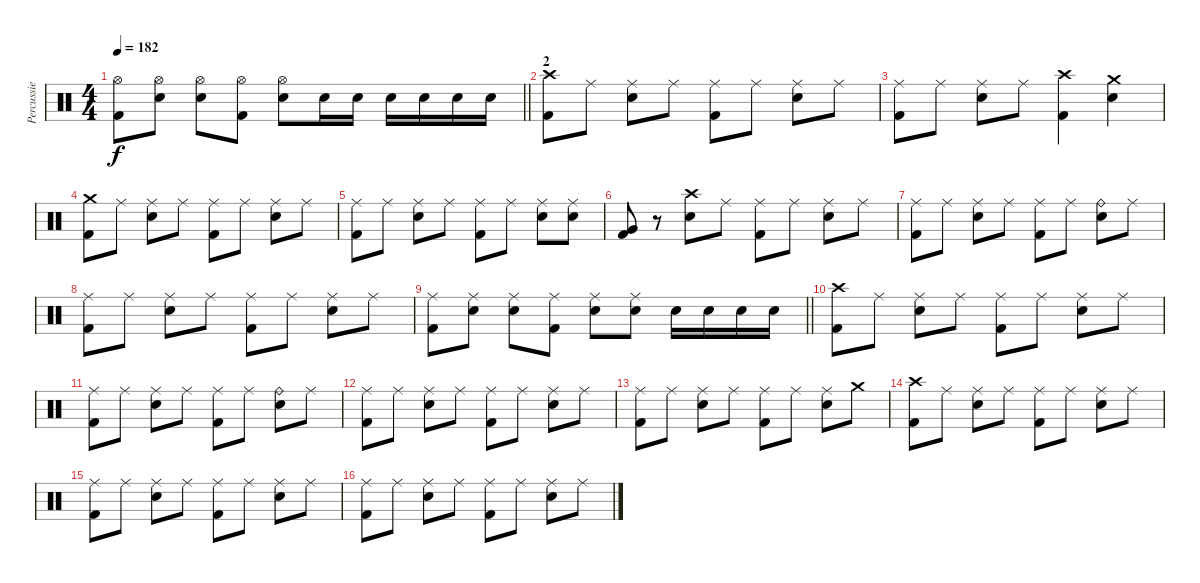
\track ("Percussie" "Percussie") {instrument percussion}
\staff {score}
\articulation defaults
\ts (4 4)
\tempo 182
\clef neutral
\barLineRight lightlight
\ks c
("Hi-Hat (open)" "Kick (hit) 2").8{dy f} ("Hi-Hat (open)" "Snare (hit) 2").8 ("Hi-Hat (open)" "Snare (hit) 2").8 ("Hi-Hat (open)" "Kick (hit) 2").8 ("Hi-Hat (open)" "Snare (hit) 2").8 "Snare (hit) 2".16 "Snare (hit) 2".16 "Snare (hit) 2".16 "Snare (hit) 2".16 "Snare (hit) 2".16 "Snare (hit) 2".16 |
\section ("" "2")
("Crash high (hit)" "Kick (hit) 2").8 "Ride (middle)".8 ("Ride (middle)" "Snare (hit) 2").8 "Ride (middle)".8 ("Ride (middle)" "Kick (hit) 2").8 "Ride (middle)".8 ("Ride (middle)" "Snare (hit) 2").8 "Ride (middle)".8 |
("Ride (middle)" "Kick (hit) 2").8 "Ride (middle)".8 ("Ride (middle)" "Snare (hit) 2").8 "Ride (middle)".8 ("Crash high (hit)" "Kick (hit) 2").4 ("Crash medium (hit)" "Snare (hit) 2").4 |
("Crash medium (hit)" "Kick (hit) 2").8 "Ride (middle)".8 ("Ride (middle)" "Snare (hit) 2").8 "Ride (middle)".8 ("Ride (middle)" "Kick (hit) 2").8 "Ride (middle)".8 ("Ride (middle)" "Snare (hit) 2").8 "Ride (middle)".8 |
("Ride (middle)" "Kick (hit) 2").8 "Ride (middle)".8 ("Ride (middle)" "Snare (hit) 2").8 "Ride (middle)".8 ("Ride (middle)" "Kick (hit) 2").8 "Ride (middle)".8 ("Ride (middle)" "Snare (hit) 2").8 ("Ride (middle)" "Snare (hit) 2").8 |
("Very Low Tom (hit)" "Kick (hit) 2").8 r.8 ("Crash high (hit)" "Snare (hit) 2").8 "Ride (middle)".8 ("Ride (middle)" "Kick (hit) 2").8 "Ride (middle)".8 ("Ride (middle)" "Snare (hit) 2").8 "Ride (middle)".8 |
("Ride (middle)" "Kick (hit) 2").8 "Ride (middle)".8 ("Ride (middle)" "Snare (hit) 2").8 "Ride (middle)".8 ("Ride (middle)" "Kick (hit) 2").8 "Ride (middle)".8 ("Ride (bell)" "Snare (hit) 2").8 "Ride (middle)".8 |
("Ride (middle)" "Kick (hit) 2").8 "Ride (middle)".8 ("Ride (middle)" "Snare (hit) 2").8 "Ride (middle)".8 ("Ride (middle)" "Kick (hit) 2").8 "Ride (middle)".8 ("Ride (middle)" "Snare (hit) 2").8 "Ride (middle)".8 |
\barLineRight lightlight
("Ride (middle)" "Kick (hit) 2").8 ("Ride (middle)" "Snare (hit) 2").8 ("Ride (middle)" "Snare (hit) 2").8 ("Ride (middle)" "Kick (hit) 2").8 ("Ride (middle)" "Snare (hit) 2").8 ("Ride (middle)" "Snare (hit) 2").8 "Snare (hit) 2".16 "Snare (hit) 2".16 "Snare (hit) 2".16 "Snare (hit) 2".16 |
("Crash high (hit)" "Kick (hit) 2").8 "Ride (middle)".8 ("Ride (middle)" "Snare (hit) 2").8 "Ride (middle)".8 ("Ride (middle)" "Kick (hit) 2").8 "Ride (middle)".8 ("Ride (middle)" "Snare (hit) 2").8 "Ride (middle)".8 |
("Ride (middle)" "Kick (hit) 2").8 "Ride (middle)".8 ("Ride (middle)" "Snare (hit) 2").8 "Ride (middle)".8 ("Ride (middle)" "Kick (hit) 2").8 "Ride (middle)".8 ("Ride (bell)" "Snare (hit) 2").8 "Ride (middle)".8 |
("Ride (middle)" "Kick (hit) 2").8 "Ride (middle)".8 ("Ride (middle)" "Snare (hit) 2").8 "Ride (middle)".8 ("Ride (middle)" "Kick (hit) 2").8 "Ride (middle)".8 ("Ride (middle)" "Snare (hit) 2").8 "Ride (middle)".8 |
("Ride (middle)" "Kick (hit) 2").8 "Ride (middle)".8 ("Ride (middle)" "Snare (hit) 2").8 "Ride (middle)".8 ("Ride (middle)" "Kick (hit) 2").8 "Ride (middle)".8 ("Ride (middle)" "Snare (hit) 2").8 "Crash medium (hit)".8 |
("Crash high (hit)" "Kick (hit) 2").8 "Ride (middle)".8 ("Ride (middle)" "Snare (hit) 2").8 "Ride (middle)".8 ("Ride (middle)" "Kick (hit) 2").8 "Ride (middle)".8 ("Ride (middle)" "Snare (hit) 2").8 "Ride (middle)".8 |
("Ride (middle)" "Kick (hit) 2").8 "Ride (middle)".8 ("Ride (middle)" "Snare (hit) 2").8 "Ride (middle)".8 ("Ride (middle)" "Kick (hit) 2").8 "Ride (middle)".8 ("Ride (middle)" "Snare (hit) 2").8 "Ride (middle)".8 |
("Ride (middle)" "Kick (hit) 2").8 "Ride (middle)".8 ("Ride (middle)" "Snare (hit) 2").8 "Ride (middle)".8 ("Ride (middle)" "Kick (hit) 2").8 "Ride (middle)".8 ("Ride (middle)" "Snare (hit) 2").8 "Ride (middle)".8
